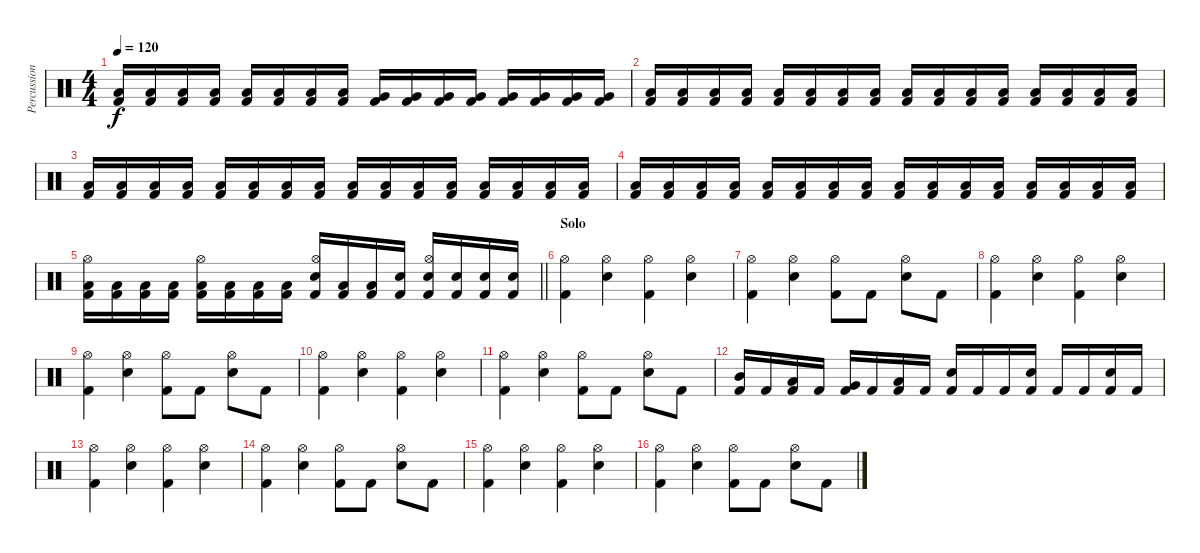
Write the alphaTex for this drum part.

\track ("Percussion" "Percussion") {instrument percussion}
\staff {score}
\articulation defaults
\ts (4 4)
\tempo 120
\clef neutral
\ks c
("Kick (hit) 2" "Low Tom (hit)").16{dy f} ("Kick (hit) 2" "Low Tom (hit)").16 ("Kick (hit) 2" "Low Tom (hit)").16 ("Kick (hit) 2" "Low Tom (hit)").16 ("Kick (hit) 2" "Low Tom (hit)").16 ("Kick (hit) 2" "Low Tom (hit)").16 ("Kick (hit) 2" "Low Tom (hit)").16 ("Kick (hit) 2" "Low Tom (hit)").16 ("Kick (hit) 2" "Very Low Tom (hit)").16 ("Kick (hit) 2" "Very Low Tom (hit)").16 ("Kick (hit) 2" "Very Low Tom (hit)").16 ("Kick (hit) 2" "Very Low Tom (hit)").16 ("Kick (hit) 2" "Very Low Tom (hit)").16 ("Kick (hit) 2" "Very Low Tom (hit)").16 ("Kick (hit) 2" "Very Low Tom (hit)").16 ("Kick (hit) 2" "Very Low Tom (hit)").16 |
("Kick (hit) 2" "Low Floor Tom (hit)").16{volume 6} ("Kick (hit) 2" "Low Floor Tom (hit)").16 ("Kick (hit) 2" "Low Floor Tom (hit)").16 ("Kick (hit) 2" "Low Floor Tom (hit)").16 ("Kick (hit) 2" "Low Floor Tom (hit)").16 ("Kick (hit) 2" "Low Floor Tom (hit)").16 ("Kick (hit) 2" "Low Floor Tom (hit)").16 ("Kick (hit) 2" "Low Floor Tom (hit)").16 ("Kick (hit) 2" "Low Floor Tom (hit)").16{volume 10} ("Kick (hit) 2" "Low Floor Tom (hit)").16 ("Kick (hit) 2" "Low Floor Tom (hit)").16 ("Kick (hit) 2" "Low Floor Tom (hit)").16 ("Kick (hit) 2" "Low Floor Tom (hit)").16 ("Kick (hit) 2" "Low Floor Tom (hit)").16 ("Kick (hit) 2" "Low Floor Tom (hit)").16 ("Kick (hit) 2" "Low Floor Tom (hit)").16 |
("Kick (hit) 2" "Low Floor Tom (hit)").16 ("Kick (hit) 2" "Low Floor Tom (hit)").16 ("Kick (hit) 2" "Low Floor Tom (hit)").16 ("Kick (hit) 2" "Low Floor Tom (hit)").16{volume 12} ("Kick (hit) 2" "Low Floor Tom (hit)").16 ("Kick (hit) 2" "Low Floor Tom (hit)").16 ("Kick (hit) 2" "Low Floor Tom (hit)").16 ("Kick (hit) 2" "Low Floor Tom (hit)").16 ("Kick (hit) 2" "Low Floor Tom (hit)").16 ("Kick (hit) 2" "Low Floor Tom (hit)").16 ("Kick (hit) 2" "Low Floor Tom (hit)").16 ("Kick (hit) 2" "Low Floor Tom (hit)").16 ("Kick (hit) 2" "Low Floor Tom (hit)").16 ("Kick (hit) 2" "Low Floor Tom (hit)").16 ("Kick (hit) 2" "Low Floor Tom (hit)").16 ("Kick (hit) 2" "Low Floor Tom (hit)").16 |
("Kick (hit) 2" "Low Floor Tom (hit)").16 ("Kick (hit) 2" "Low Floor Tom (hit)").16 ("Kick (hit) 2" "Low Floor Tom (hit)").16 ("Kick (hit) 2" "Low Floor Tom (hit)").16{volume 16} ("Kick (hit) 2" "Low Floor Tom (hit)").16 ("Kick (hit) 2" "Low Floor Tom (hit)").16 ("Kick (hit) 2" "Low Floor Tom (hit)").16 ("Kick (hit) 2" "Low Floor Tom (hit)").16 ("Kick (hit) 2" "Low Floor Tom (hit)").16 ("Kick (hit) 2" "Low Floor Tom (hit)").16 ("Kick (hit) 2" "Low Floor Tom (hit)").16 ("Kick (hit) 2" "Low Floor Tom (hit)").16 ("Kick (hit) 2" "Low Floor Tom (hit)").16 ("Kick (hit) 2" "Low Floor Tom (hit)").16 ("Kick (hit) 2" "Low Floor Tom (hit)").16 ("Kick (hit) 2" "Low Floor Tom (hit)").16 |
\barLineRight lightlight
("Kick (hit) 2" "Low Floor Tom (hit)" "Hi-Hat (open)").16 ("Kick (hit) 2" "Low Floor Tom (hit)").16 ("Kick (hit) 2" "Low Floor Tom (hit)").16 ("Kick (hit) 2" "Low Floor Tom (hit)").16 ("Kick (hit) 2" "Low Floor Tom (hit)" "Hi-Hat (open)").16 ("Kick (hit) 2" "Low Floor Tom (hit)").16 ("Kick (hit) 2" "Low Floor Tom (hit)").16 ("Kick (hit) 2" "Low Floor Tom (hit)").16 ("Kick (hit) 2" "Electric Snare (hit)" "Hi-Hat (open)").16 ("Kick (hit) 2" "Low Floor Tom (hit)").16 ("Kick (hit) 2" "Low Floor Tom (hit)").16 ("Kick (hit) 2" "Electric Snare (hit)").16 ("Kick (hit) 2" "Electric Snare (hit)" "Hi-Hat (open)").16 ("Kick (hit) 2" "Electric Snare (hit)").16 ("Kick (hit) 2" "Electric Snare (hit)").16 ("Kick (hit) 2" "Electric Snare (hit)").16 |
\section ("" "Solo")
("Hi-Hat (open)" "Kick (hit) 2").4 ("Hi-Hat (open)" "Electric Snare (hit)").4 ("Hi-Hat (open)" "Kick (hit) 2").4 ("Hi-Hat (open)" "Electric Snare (hit)").4 |
("Hi-Hat (open)" "Kick (hit) 2").4 ("Hi-Hat (open)" "Electric Snare (hit)").4 ("Hi-Hat (open)" "Kick (hit) 2").8 "Kick (hit) 2".8 ("Hi-Hat (open)" "Electric Snare (hit)").8 "Kick (hit) 2".8 |
("Hi-Hat (open)" "Kick (hit) 2").4 ("Hi-Hat (open)" "Electric Snare (hit)").4 ("Hi-Hat (open)" "Kick (hit) 2").4 ("Hi-Hat (open)" "Electric Snare (hit)").4 |
("Hi-Hat (open)" "Kick (hit) 2").4 ("Hi-Hat (open)" "Electric Snare (hit)").4 ("Hi-Hat (open)" "Kick (hit) 2").8 "Kick (hit) 2".8 ("Hi-Hat (open)" "Electric Snare (hit)").8 "Kick (hit) 2".8 |
("Hi-Hat (open)" "Kick (hit) 2").4 ("Hi-Hat (open)" "Electric Snare (hit)").4 ("Hi-Hat (open)" "Kick (hit) 2").4 ("Hi-Hat (open)" "Electric Snare (hit)").4 |
("Hi-Hat (open)" "Kick (hit) 2").4 ("Hi-Hat (open)" "Electric Snare (hit)").4 ("Hi-Hat (open)" "Kick (hit) 2").8 "Kick (hit) 2".8 ("Hi-Hat (open)" "Electric Snare (hit)").8 "Kick (hit) 2".8 |
("Kick (hit) 2" "Mid Tom (hit)").16 "Kick (hit) 2".16 ("Kick (hit) 2" "Low Tom (hit)").16 "Kick (hit) 2".16 ("Kick (hit) 2" "Very Low Tom (hit)").16 "Kick (hit) 2".16 ("Kick (hit) 2" "Low Floor Tom (hit)").16 "Kick (hit) 2".16 ("Kick (hit) 2" "Electric Snare (hit)").16 "Kick (hit) 2".16 "Kick (hit) 2".16 ("Kick (hit) 2" "Electric Snare (hit)").16 "Kick (hit) 2".16 "Kick (hit) 2".16 ("Kick (hit) 2" "Electric Snare (hit)").16 "Kick (hit) 2".16 |
("Hi-Hat (open)" "Kick (hit) 2").4 ("Hi-Hat (open)" "Electric Snare (hit)").4 ("Hi-Hat (open)" "Kick (hit) 2").4 ("Hi-Hat (open)" "Electric Snare (hit)").4 |
("Hi-Hat (open)" "Kick (hit) 2").4 ("Hi-Hat (open)" "Electric Snare (hit)").4 ("Hi-Hat (open)" "Kick (hit) 2").8 "Kick (hit) 2".8 ("Hi-Hat (open)" "Electric Snare (hit)").8 "Kick (hit) 2".8 |
("Hi-Hat (open)" "Kick (hit) 2").4 ("Hi-Hat (open)" "Electric Snare (hit)").4 ("Hi-Hat (open)" "Kick (hit) 2").4 ("Hi-Hat (open)" "Electric Snare (hit)").4 |
("Hi-Hat (open)" "Kick (hit) 2").4 ("Hi-Hat (open)" "Electric Snare (hit)").4 ("Hi-Hat (open)" "Kick (hit) 2").8 "Kick (hit) 2".8 ("Hi-Hat (open)" "Electric Snare (hit)").8 "Kick (hit) 2".8
